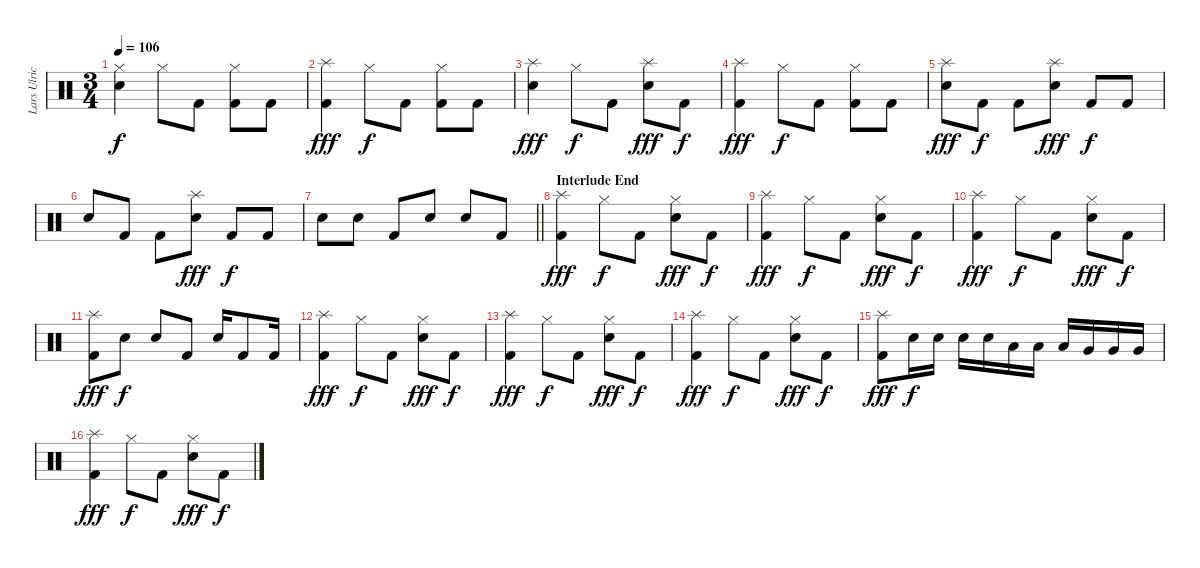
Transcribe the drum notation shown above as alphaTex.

\track ("Lars Ulrich" "Lars Ulric") {instrument percussion}
\staff {score}
\articulation defaults
\ts (3 4)
\tempo 106
\clef neutral
\ks c
("Hi-Hat (closed)" "Electric Snare (hit)").4{dy f} "Hi-Hat (closed)".8 "Kick (hit) 2".8 ("Hi-Hat (closed)" "Kick (hit) 2").8 "Kick (hit) 2".8 |
("Splash (hit)" "Kick (hit) 2").4{dy fff} "Hi-Hat (closed)".8{dy f} "Kick (hit) 2".8 ("Hi-Hat (closed)" "Kick (hit) 2").8 "Kick (hit) 2".8 |
("Splash (hit)" "Electric Snare (hit)").4{dy fff} "Hi-Hat (closed)".8{dy f} "Kick (hit) 2".8 ("Splash (hit)" "Electric Snare (hit)").8{dy fff} "Kick (hit) 2".8{dy f} |
("Splash (hit)" "Kick (hit) 2").4{dy fff} "Hi-Hat (closed)".8{dy f} "Kick (hit) 2".8 ("Hi-Hat (closed)" "Kick (hit) 2").8 "Kick (hit) 2".8 |
("Splash (hit)" "Electric Snare (hit)").8{dy fff} "Kick (hit) 2".8{dy f} "Kick (hit) 2".8 ("Splash (hit)" "Electric Snare (hit)").8{dy fff} "Kick (hit) 2".8{dy f} "Kick (hit) 2".8 |
"Electric Snare (hit)".8 "Kick (hit) 2".8 "Kick (hit) 2".8 ("Splash (hit)" "Electric Snare (hit)").8{dy fff} "Kick (hit) 2".8{dy f} "Kick (hit) 2".8 |
\barLineRight lightlight "Electric Snare (hit)".8 "Electric Snare (hit)".8 "Kick (hit) 2".8 "Electric Snare (hit)".8 "Electric Snare (hit)".8 "Kick (hit) 2".8
|
\section ("" "Interlude End")
("Splash (hit)" "Kick (hit) 2").4{dy fff} "Hi-Hat (closed)".8{dy f} "Kick (hit) 2".8 ("Hi-Hat (closed)" "Electric Snare (hit)").8{dy fff} "Kick (hit) 2".8{dy f} |
("Splash (hit)" "Kick (hit) 2").4{dy fff} "Hi-Hat (closed)".8{dy f} "Kick (hit) 2".8 ("Hi-Hat (closed)" "Electric Snare (hit)").8{dy fff} "Kick (hit) 2".8{dy f} |
("Splash (hit)" "Kick (hit) 2").4{dy fff} "Hi-Hat (closed)".8{dy f} "Kick (hit) 2".8 ("Hi-Hat (closed)" "Electric Snare (hit)").8{dy fff} "Kick (hit) 2".8{dy f} |
("Splash (hit)" "Kick (hit) 2").8{dy fff} "Electric Snare (hit)".8{dy f} "Electric Snare (hit)".8 "Kick (hit) 2".8 "Electric Snare (hit)".16 "Kick (hit) 2".8 "Kick (hit) 2".16 |
("Splash (hit)" "Kick (hit) 2").4{dy fff} "Hi-Hat (closed)".8{dy f} "Kick (hit) 2".8 ("Hi-Hat (closed)" "Electric Snare (hit)").8{dy fff} "Kick (hit) 2".8{dy f} |
("Splash (hit)" "Kick (hit) 2").4{dy fff} "Hi-Hat (closed)".8{dy f} "Kick (hit) 2".8 ("Hi-Hat (closed)" "Electric Snare (hit)").8{dy fff} "Kick (hit) 2".8{dy f} |
("Splash (hit)" "Kick (hit) 2").4{dy fff} "Hi-Hat (closed)".8{dy f} "Kick (hit) 2".8 ("Hi-Hat (closed)" "Electric Snare (hit)").8{dy fff} "Kick (hit) 2".8{dy f} |
("Splash (hit)" "Kick (hit) 2").8{dy fff} "Electric Snare (hit)".16{dy f} "Electric Snare (hit)".16 "Electric Snare (hit)".16 "Electric Snare (hit)".16 "Low Tom (hit)".16 "Low Tom (hit)".16 "Low Tom (hit)".16 "Very Low Tom (hit)".16 "Very Low Tom (hit)".16 "Very Low Tom (hit)".16 |
("Splash (hit)" "Kick (hit) 2").4{dy fff} "Hi-Hat (closed)".8{dy f} "Kick (hit) 2".8 ("Hi-Hat (closed)" "Electric Snare (hit)").8{dy fff} "Kick (hit) 2".8{dy f}
